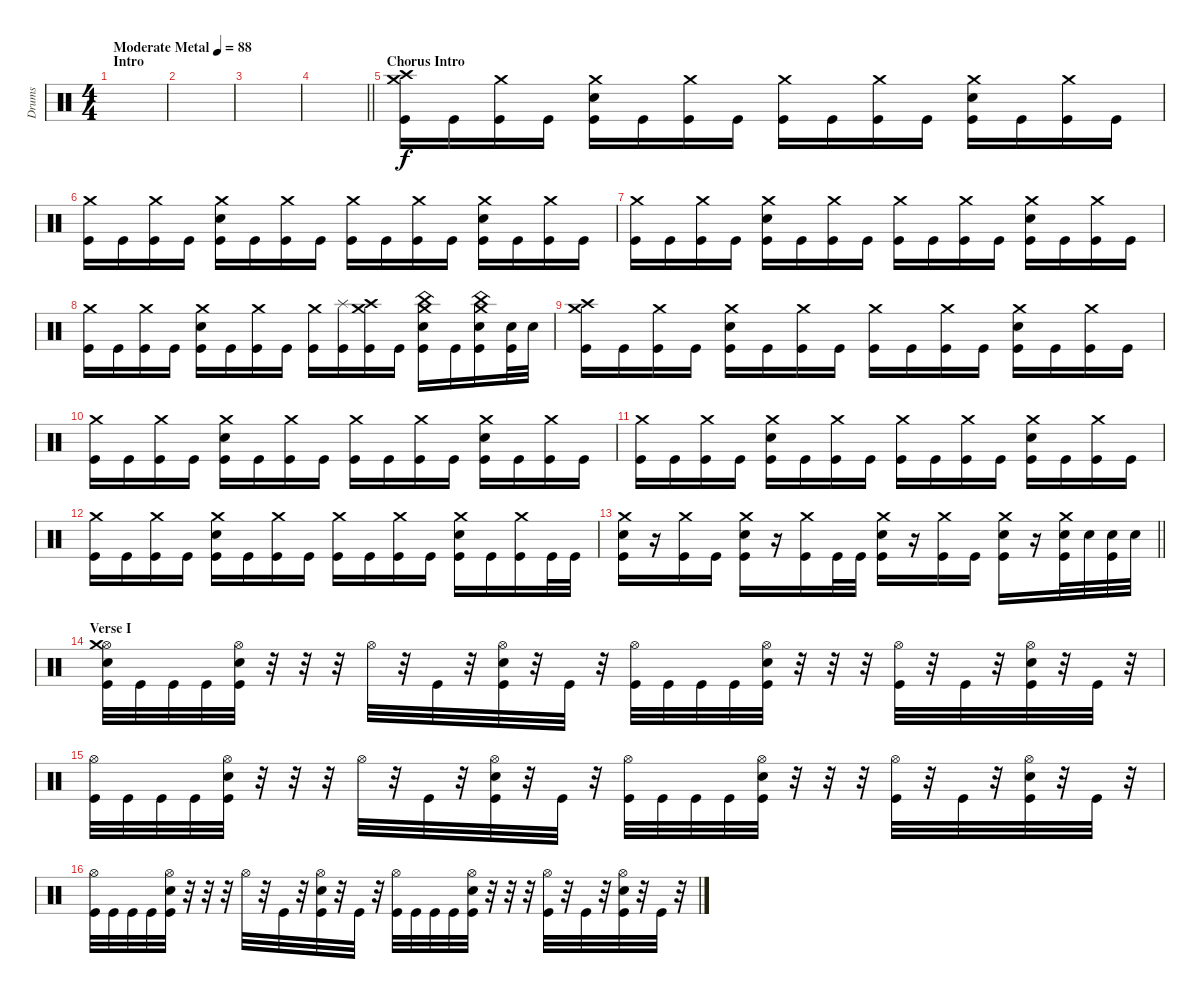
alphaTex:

\track ("Drums" "Drums") {instrument percussion}
\staff {score}
\articulation defaults
\ts (4 4)
\section ("" "Intro")
\tempo (88 "Moderate Metal")
\clef neutral
\ks c
|
|
|
\barLineRight lightlight
|
\section ("" "Chorus Intro")
("Crash medium (hit)" "Crash high (hit)" "Kick (hit)").16 "Kick (hit)".16 ("Crash medium (hit)" "Kick (hit)").16 "Kick (hit)".16 ("Crash medium (hit)" "Electric Snare (hit)" "Kick (hit)").16 "Kick (hit)".16 ("Crash medium (hit)" "Kick (hit)").16 "Kick (hit)".16 ("Crash medium (hit)" "Kick (hit)").16 "Kick (hit)".16 ("Crash medium (hit)" "Kick (hit)").16 "Kick (hit)".16 ("Crash medium (hit)" "Electric Snare (hit)" "Kick (hit)").16 "Kick (hit)".16 ("Crash medium (hit)" "Kick (hit)").16 "Kick (hit)".16 |
("Crash medium (hit)" "Kick (hit)").16 "Kick (hit)".16 ("Crash medium (hit)" "Kick (hit)").16 "Kick (hit)".16 ("Crash medium (hit)" "Electric Snare (hit)" "Kick (hit)").16 "Kick (hit)".16 ("Crash medium (hit)" "Kick (hit)").16 "Kick (hit)".16 ("Crash medium (hit)" "Kick (hit)").16 "Kick (hit)".16 ("Crash medium (hit)" "Kick (hit)").16 "Kick (hit)".16 ("Crash medium (hit)" "Electric Snare (hit)" "Kick (hit)").16 "Kick (hit)".16 ("Crash medium (hit)" "Kick (hit)").16 "Kick (hit)".16 |
("Crash medium (hit)" "Kick (hit)").16 "Kick (hit)".16 ("Crash medium (hit)" "Kick (hit)").16 "Kick (hit)".16 ("Crash medium (hit)" "Electric Snare (hit)" "Kick (hit)").16 "Kick (hit)".16 ("Crash medium (hit)" "Kick (hit)").16 "Kick (hit)".16 ("Crash medium (hit)" "Kick (hit)").16 "Kick (hit)".16 ("Crash medium (hit)" "Kick (hit)").16 "Kick (hit)".16 ("Crash medium (hit)" "Electric Snare (hit)" "Kick (hit)").16 "Kick (hit)".16 ("Crash medium (hit)" "Kick (hit)").16 "Kick (hit)".16 |
("Crash medium (hit)" "Kick (hit)").16 "Kick (hit)".16 ("Crash medium (hit)" "Kick (hit)").16 "Kick (hit)".16 ("Crash medium (hit)" "Electric Snare (hit)" "Kick (hit)").16 "Kick (hit)".16 ("Crash medium (hit)" "Kick (hit)").16 "Kick (hit)".16 ("Crash medium (hit)" "Kick (hit)").16 ("Splash (hit)" "Kick (hit)").16 ("Crash medium (hit)" "Crash high (hit)" "Kick (hit)").16 "Kick (hit)".16 ("Crash medium (hit)" "China (hit)" "Electric Snare (hit)" "Kick (hit)").16 "Kick (hit)".16 ("Crash medium (hit)" "China (hit)" "Electric Snare (hit)" "Kick (hit)").16 ("Electric Snare (hit)" "Kick (hit)").32 "Electric Snare (hit)".32 |
("Crash medium (hit)" "Crash high (hit)" "Kick (hit)").16 "Kick (hit)".16 ("Crash medium (hit)" "Kick (hit)").16 "Kick (hit)".16 ("Crash medium (hit)" "Electric Snare (hit)" "Kick (hit)").16 "Kick (hit)".16 ("Crash medium (hit)" "Kick (hit)").16 "Kick (hit)".16 ("Crash medium (hit)" "Kick (hit)").16 "Kick (hit)".16 ("Crash medium (hit)" "Kick (hit)").16 "Kick (hit)".16 ("Crash medium (hit)" "Electric Snare (hit)" "Kick (hit)").16 "Kick (hit)".16 ("Crash medium (hit)" "Kick (hit)").16 "Kick (hit)".16 |
("Crash medium (hit)" "Kick (hit)").16 "Kick (hit)".16 ("Crash medium (hit)" "Kick (hit)").16 "Kick (hit)".16 ("Crash medium (hit)" "Electric Snare (hit)" "Kick (hit)").16 "Kick (hit)".16 ("Crash medium (hit)" "Kick (hit)").16 "Kick (hit)".16 ("Crash medium (hit)" "Kick (hit)").16 "Kick (hit)".16 ("Crash medium (hit)" "Kick (hit)").16 "Kick (hit)".16 ("Crash medium (hit)" "Electric Snare (hit)" "Kick (hit)").16 "Kick (hit)".16 ("Crash medium (hit)" "Kick (hit)").16 "Kick (hit)".16 |
("Crash medium (hit)" "Kick (hit)").16 "Kick (hit)".16 ("Crash medium (hit)" "Kick (hit)").16 "Kick (hit)".16 ("Crash medium (hit)" "Electric Snare (hit)" "Kick (hit)").16 "Kick (hit)".16 ("Crash medium (hit)" "Kick (hit)").16 "Kick (hit)".16 ("Crash medium (hit)" "Kick (hit)").16 "Kick (hit)".16 ("Crash medium (hit)" "Kick (hit)").16 "Kick (hit)".16 ("Crash medium (hit)" "Electric Snare (hit)" "Kick (hit)").16 "Kick (hit)".16 ("Crash medium (hit)" "Kick (hit)").16 "Kick (hit)".16 |
("Crash medium (hit)" "Kick (hit)").16 "Kick (hit)".16 ("Crash medium (hit)" "Kick (hit)").16 "Kick (hit)".16 ("Crash medium (hit)" "Electric Snare (hit)" "Kick (hit)").16 "Kick (hit)".16 ("Crash medium (hit)" "Kick (hit)").16 "Kick (hit)".16 ("Crash medium (hit)" "Kick (hit)").16 "Kick (hit)".16 ("Crash medium (hit)" "Kick (hit)").16 "Kick (hit)".16 ("Crash medium (hit)" "Electric Snare (hit)" "Kick (hit)").16 "Kick (hit)".16 ("Crash medium (hit)" "Kick (hit)").16 "Kick (hit)".32 "Kick (hit)".32 |
\barLineRight lightlight
("Crash medium (hit)" "Electric Snare (hit)" "Kick (hit)").16 r.16 ("Crash medium (hit)" "Kick (hit)").16 "Kick (hit)".16 ("Crash medium (hit)" "Electric Snare (hit)" "Kick (hit)").16 r.16 ("Crash medium (hit)" "Kick (hit)").16 "Kick (hit)".32 "Kick (hit)".32 ("Crash medium (hit)" "Electric Snare (hit)" "Kick (hit)").16 r.16 ("Crash medium (hit)" "Kick (hit)").16 "Kick (hit)".16 ("Crash medium (hit)" "Electric Snare (hit)" "Kick (hit)").16 r.16 ("Crash medium (hit)" "Electric Snare (hit)" "Kick (hit)").32 "Electric Snare (hit)".32 ("Electric Snare (hit)" "Kick (hit)").32 "Electric Snare (hit)".32 |
\section ("" "Verse I")
("Hi-Hat (open)" "Crash medium (hit)" "Electric Snare (hit)" "Kick (hit)").32 "Kick (hit)".32 "Kick (hit)".32 "Kick (hit)".32 ("Hi-Hat (open)" "Electric Snare (hit)" "Kick (hit)").32 r.32 r.32 r.32 "Hi-Hat (open)".32 r.32 "Kick (hit)".32 r.32 ("Hi-Hat (open)" "Electric Snare (hit)" "Kick (hit)").32 r.32 "Kick (hit)".32 r.32 ("Hi-Hat (open)" "Kick (hit)").32 "Kick (hit)".32 "Kick (hit)".32 "Kick (hit)".32 ("Hi-Hat (open)" "Electric Snare (hit)" "Kick (hit)").32 r.32 r.32 r.32 ("Hi-Hat (open)" "Kick (hit)").32 r.32 "Kick (hit)".32 r.32 ("Hi-Hat (open)" "Electric Snare (hit)" "Kick (hit)").32 r.32 "Kick (hit)".32 r.32 |
("Hi-Hat (open)" "Kick (hit)").32 "Kick (hit)".32 "Kick (hit)".32 "Kick (hit)".32 ("Hi-Hat (open)" "Electric Snare (hit)" "Kick (hit)").32 r.32 r.32 r.32 "Hi-Hat (open)".32 r.32 "Kick (hit)".32 r.32 ("Hi-Hat (open)" "Electric Snare (hit)" "Kick (hit)").32 r.32 "Kick (hit)".32 r.32 ("Hi-Hat (open)" "Kick (hit)").32 "Kick (hit)".32 "Kick (hit)".32 "Kick (hit)".32 ("Hi-Hat (open)" "Electric Snare (hit)" "Kick (hit)").32 r.32 r.32 r.32 ("Hi-Hat (open)" "Kick (hit)").32 r.32 "Kick (hit)".32 r.32 ("Hi-Hat (open)" "Electric Snare (hit)" "Kick (hit)").32 r.32 "Kick (hit)".32 r.32 |
("Hi-Hat (open)" "Kick (hit)").32 "Kick (hit)".32 "Kick (hit)".32 "Kick (hit)".32 ("Hi-Hat (open)" "Electric Snare (hit)" "Kick (hit)").32 r.32 r.32 r.32 "Hi-Hat (open)".32 r.32 "Kick (hit)".32 r.32 ("Hi-Hat (open)" "Electric Snare (hit)" "Kick (hit)").32 r.32 "Kick (hit)".32 r.32 ("Hi-Hat (open)" "Kick (hit)").32 "Kick (hit)".32 "Kick (hit)".32 "Kick (hit)".32 ("Hi-Hat (open)" "Electric Snare (hit)" "Kick (hit)").32 r.32 r.32 r.32 ("Hi-Hat (open)" "Kick (hit)").32 r.32 "Kick (hit)".32 r.32 ("Hi-Hat (open)" "Electric Snare (hit)" "Kick (hit)").32 r.32 "Kick (hit)".32 r.32
